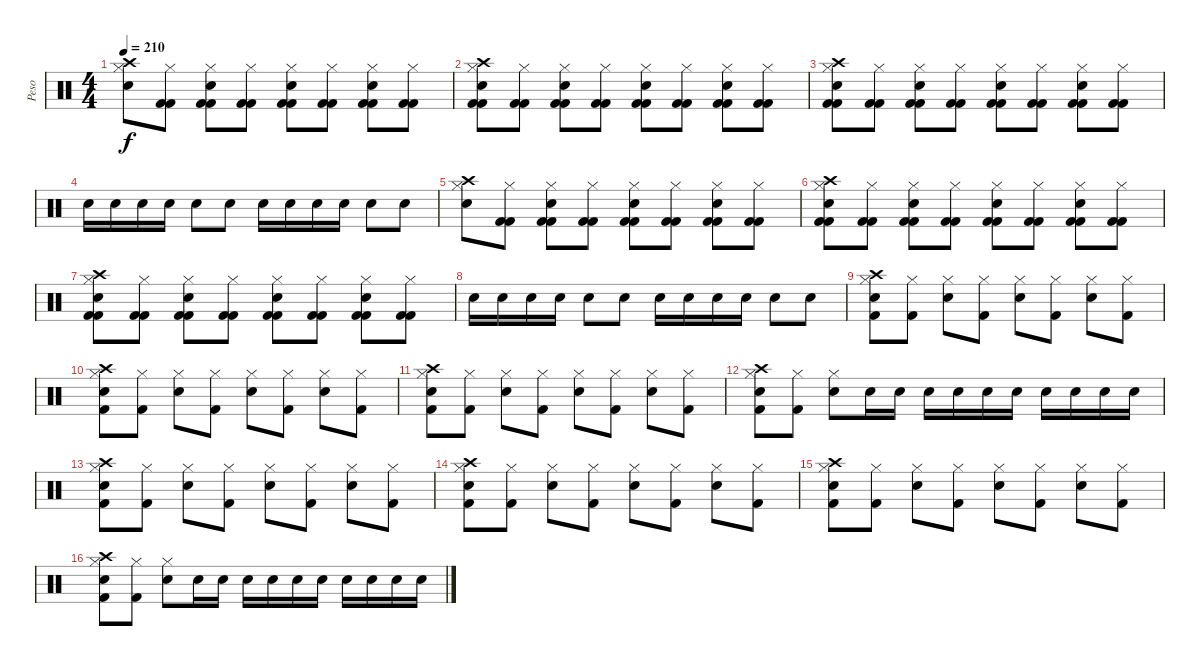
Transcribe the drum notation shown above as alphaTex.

\track ("Peso" "Peso") {instrument percussion}
\staff {score}
\articulation defaults
\ts (4 4)
\tempo 210
\clef neutral
\ks c
("Crash high (hit)" "Hi-Hat (closed)" "Snare (hit) 2").8{dy f} ("Hi-Hat (closed)" "Kick (hit) 2" "Kick (hit) 2").8 ("Hi-Hat (closed)" "Snare (hit) 2" "Kick (hit) 2" "Kick (hit) 2").8 ("Hi-Hat (closed)" "Kick (hit) 2" "Kick (hit) 2").8 ("Hi-Hat (closed)" "Snare (hit) 2" "Kick (hit) 2" "Kick (hit) 2").8 ("Hi-Hat (closed)" "Kick (hit) 2" "Kick (hit) 2").8 ("Hi-Hat (closed)" "Snare (hit) 2" "Kick (hit) 2" "Kick (hit) 2").8 ("Hi-Hat (closed)" "Kick (hit) 2" "Kick (hit) 2").8 |
("Crash high (hit)" "Hi-Hat (closed)" "Snare (hit) 2" "Kick (hit) 2" "Kick (hit) 2").8 ("Hi-Hat (closed)" "Kick (hit) 2" "Kick (hit) 2").8 ("Hi-Hat (closed)" "Snare (hit) 2" "Kick (hit) 2" "Kick (hit) 2").8 ("Hi-Hat (closed)" "Kick (hit) 2" "Kick (hit) 2").8 ("Hi-Hat (closed)" "Snare (hit) 2" "Kick (hit) 2" "Kick (hit) 2").8 ("Hi-Hat (closed)" "Kick (hit) 2" "Kick (hit) 2").8 ("Hi-Hat (closed)" "Snare (hit) 2" "Kick (hit) 2" "Kick (hit) 2").8 ("Hi-Hat (closed)" "Kick (hit) 2" "Kick (hit) 2").8 |
("Crash high (hit)" "Hi-Hat (closed)" "Snare (hit) 2" "Kick (hit) 2" "Kick (hit) 2").8 ("Hi-Hat (closed)" "Kick (hit) 2" "Kick (hit) 2").8 ("Hi-Hat (closed)" "Snare (hit) 2" "Kick (hit) 2" "Kick (hit) 2").8 ("Hi-Hat (closed)" "Kick (hit) 2" "Kick (hit) 2").8 ("Hi-Hat (closed)" "Snare (hit) 2" "Kick (hit) 2" "Kick (hit) 2").8 ("Hi-Hat (closed)" "Kick (hit) 2" "Kick (hit) 2").8 ("Hi-Hat (closed)" "Snare (hit) 2" "Kick (hit) 2" "Kick (hit) 2").8 ("Hi-Hat (closed)" "Kick (hit) 2" "Kick (hit) 2").8 |
"Snare (hit) 2".16 "Snare (hit) 2".16 "Snare (hit) 2".16 "Snare (hit) 2".16 "Snare (hit) 2".8 "Snare (hit) 2".8 "Snare (hit) 2".16 "Snare (hit) 2".16 "Snare (hit) 2".16 "Snare (hit) 2".16 "Snare (hit) 2".8 "Snare (hit) 2".8 |
("Crash high (hit)" "Hi-Hat (closed)" "Snare (hit) 2").8 ("Hi-Hat (closed)" "Kick (hit) 2" "Kick (hit) 2").8 ("Hi-Hat (closed)" "Snare (hit) 2" "Kick (hit) 2" "Kick (hit) 2").8 ("Hi-Hat (closed)" "Kick (hit) 2" "Kick (hit) 2").8 ("Hi-Hat (closed)" "Snare (hit) 2" "Kick (hit) 2" "Kick (hit) 2").8 ("Hi-Hat (closed)" "Kick (hit) 2" "Kick (hit) 2").8 ("Hi-Hat (closed)" "Snare (hit) 2" "Kick (hit) 2" "Kick (hit) 2").8 ("Hi-Hat (closed)" "Kick (hit) 2" "Kick (hit) 2").8 |
("Crash high (hit)" "Hi-Hat (closed)" "Snare (hit) 2" "Kick (hit) 2" "Kick (hit) 2").8 ("Hi-Hat (closed)" "Kick (hit) 2" "Kick (hit) 2").8 ("Hi-Hat (closed)" "Snare (hit) 2" "Kick (hit) 2" "Kick (hit) 2").8 ("Hi-Hat (closed)" "Kick (hit) 2" "Kick (hit) 2").8 ("Hi-Hat (closed)" "Snare (hit) 2" "Kick (hit) 2" "Kick (hit) 2").8 ("Hi-Hat (closed)" "Kick (hit) 2" "Kick (hit) 2").8 ("Hi-Hat (closed)" "Snare (hit) 2" "Kick (hit) 2" "Kick (hit) 2").8 ("Hi-Hat (closed)" "Kick (hit) 2" "Kick (hit) 2").8 |
("Crash high (hit)" "Hi-Hat (closed)" "Snare (hit) 2" "Kick (hit) 2" "Kick (hit) 2").8 ("Hi-Hat (closed)" "Kick (hit) 2" "Kick (hit) 2").8 ("Hi-Hat (closed)" "Snare (hit) 2" "Kick (hit) 2" "Kick (hit) 2").8 ("Hi-Hat (closed)" "Kick (hit) 2" "Kick (hit) 2").8 ("Hi-Hat (closed)" "Snare (hit) 2" "Kick (hit) 2" "Kick (hit) 2").8 ("Hi-Hat (closed)" "Kick (hit) 2" "Kick (hit) 2").8 ("Hi-Hat (closed)" "Snare (hit) 2" "Kick (hit) 2" "Kick (hit) 2").8 ("Hi-Hat (closed)" "Kick (hit) 2" "Kick (hit) 2").8 |
"Snare (hit) 2".16 "Snare (hit) 2".16 "Snare (hit) 2".16 "Snare (hit) 2".16 "Snare (hit) 2".8 "Snare (hit) 2".8 "Snare (hit) 2".16 "Snare (hit) 2".16 "Snare (hit) 2".16 "Snare (hit) 2".16 "Snare (hit) 2".8 "Snare (hit) 2".8 |
("Crash high (hit)" "Hi-Hat (closed)" "Snare (hit) 2" "Kick (hit) 2").8 ("Hi-Hat (closed)" "Kick (hit) 2").8 ("Hi-Hat (closed)" "Snare (hit) 2").8 ("Hi-Hat (closed)" "Kick (hit) 2").8 ("Hi-Hat (closed)" "Snare (hit) 2").8 ("Hi-Hat (closed)" "Kick (hit) 2").8 ("Hi-Hat (closed)" "Snare (hit) 2").8 ("Hi-Hat (closed)" "Kick (hit) 2").8 |
("Crash high (hit)" "Hi-Hat (closed)" "Snare (hit) 2" "Kick (hit) 2").8 ("Hi-Hat (closed)" "Kick (hit) 2").8 ("Hi-Hat (closed)" "Snare (hit) 2").8 ("Hi-Hat (closed)" "Kick (hit) 2").8 ("Hi-Hat (closed)" "Snare (hit) 2").8 ("Hi-Hat (closed)" "Kick (hit) 2").8 ("Hi-Hat (closed)" "Snare (hit) 2").8 ("Hi-Hat (closed)" "Kick (hit) 2").8 |
("Crash high (hit)" "Hi-Hat (closed)" "Snare (hit) 2" "Kick (hit) 2").8 ("Hi-Hat (closed)" "Kick (hit) 2").8 ("Hi-Hat (closed)" "Snare (hit) 2").8 ("Hi-Hat (closed)" "Kick (hit) 2").8 ("Hi-Hat (closed)" "Snare (hit) 2").8 ("Hi-Hat (closed)" "Kick (hit) 2").8 ("Hi-Hat (closed)" "Snare (hit) 2").8 ("Hi-Hat (closed)" "Kick (hit) 2").8 |
("Crash high (hit)" "Hi-Hat (closed)" "Snare (hit) 2" "Kick (hit) 2").8 ("Hi-Hat (closed)" "Kick (hit) 2").8 ("Hi-Hat (closed)" "Snare (hit) 2").8 "Snare (hit) 2".16 "Snare (hit) 2".16 "Snare (hit) 2".16 "Snare (hit) 2".16 "Snare (hit) 2".16 "Snare (hit) 2".16 "Snare (hit) 2".16 "Snare (hit) 2".16 "Snare (hit) 2".16 "Snare (hit) 2".16 |
("Crash high (hit)" "Hi-Hat (closed)" "Snare (hit) 2" "Kick (hit) 2").8 ("Hi-Hat (closed)" "Kick (hit) 2").8 ("Hi-Hat (closed)" "Snare (hit) 2").8 ("Hi-Hat (closed)" "Kick (hit) 2").8 ("Hi-Hat (closed)" "Snare (hit) 2").8 ("Hi-Hat (closed)" "Kick (hit) 2").8 ("Hi-Hat (closed)" "Snare (hit) 2").8 ("Hi-Hat (closed)" "Kick (hit) 2").8 |
("Crash high (hit)" "Hi-Hat (closed)" "Snare (hit) 2" "Kick (hit) 2").8 ("Hi-Hat (closed)" "Kick (hit) 2").8 ("Hi-Hat (closed)" "Snare (hit) 2").8 ("Hi-Hat (closed)" "Kick (hit) 2").8 ("Hi-Hat (closed)" "Snare (hit) 2").8 ("Hi-Hat (closed)" "Kick (hit) 2").8 ("Hi-Hat (closed)" "Snare (hit) 2").8 ("Hi-Hat (closed)" "Kick (hit) 2").8 |
("Crash high (hit)" "Hi-Hat (closed)" "Snare (hit) 2" "Kick (hit) 2").8 ("Hi-Hat (closed)" "Kick (hit) 2").8 ("Hi-Hat (closed)" "Snare (hit) 2").8 ("Hi-Hat (closed)" "Kick (hit) 2").8 ("Hi-Hat (closed)" "Snare (hit) 2").8 ("Hi-Hat (closed)" "Kick (hit) 2").8 ("Hi-Hat (closed)" "Snare (hit) 2").8 ("Hi-Hat (closed)" "Kick (hit) 2").8 |
("Crash high (hit)" "Hi-Hat (closed)" "Snare (hit) 2" "Kick (hit) 2").8 ("Hi-Hat (closed)" "Kick (hit) 2").8 ("Hi-Hat (closed)" "Snare (hit) 2").8 "Snare (hit) 2".16 "Snare (hit) 2".16 "Snare (hit) 2".16 "Snare (hit) 2".16 "Snare (hit) 2".16 "Snare (hit) 2".16 "Snare (hit) 2".16 "Snare (hit) 2".16 "Snare (hit) 2".16 "Snare (hit) 2".16
